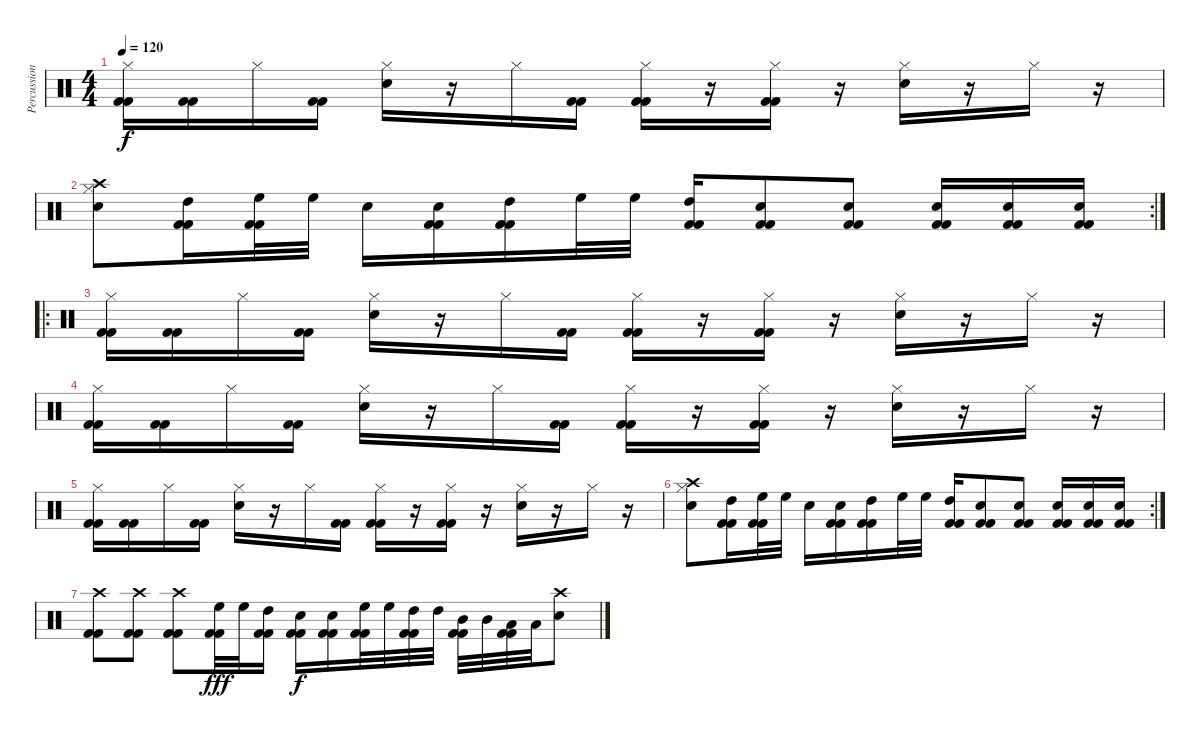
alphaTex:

\track ("Percussion" "Percussion") {instrument percussion}
\staff {score}
\articulation defaults
\ts (4 4)
\tempo 120
\clef neutral
\ks c
("Hi-Hat (closed)" "Kick (hit) 2" "Kick (hit) 2").16{dy f} ("Kick (hit) 2" "Kick (hit) 2").16 "Hi-Hat (closed)".16 ("Kick (hit) 2" "Kick (hit) 2").16 ("Hi-Hat (closed)" "Snare (hit) 2").16 r.16 "Hi-Hat (closed)".16 ("Kick (hit) 2" "Kick (hit) 2").16 ("Hi-Hat (closed)" "Kick (hit) 2" "Kick (hit) 2").16 r.16 ("Hi-Hat (closed)" "Kick (hit) 2" "Kick (hit) 2").16 r.16 ("Hi-Hat (closed)" "Snare (hit) 2").16 r.16 "Hi-Hat (closed)".16 r.16 |
\rc 2
("Hi-Hat (closed)" "Crash high (hit)" "Snare (hit) 2").8 ("High Tom (hit)" "Kick (hit) 2" "Kick (hit) 2").16 ("High Floor Tom (hit)" "Kick (hit) 2" "Kick (hit) 2").32 "High Floor Tom (hit)".32 "Snare (hit) 2".16 ("Snare (hit) 2" "Kick (hit) 2" "Kick (hit) 2").16 ("High Tom (hit)" "Kick (hit) 2" "Kick (hit) 2").16 "High Floor Tom (hit)".32 "High Floor Tom (hit)".32 ("High Tom (hit)" "Kick (hit) 2" "Kick (hit) 2").16 ("Snare (hit) 2" "Kick (hit) 2" "Kick (hit) 2").8 ("Snare (hit) 2" "Kick (hit) 2" "Kick (hit) 2").8 ("Snare (hit) 2" "Kick (hit) 2" "Kick (hit) 2").16 ("Snare (hit) 2" "Kick (hit) 2" "Kick (hit) 2").16 ("Snare (hit) 2" "Kick (hit) 2" "Kick (hit) 2").16 |
\ro
("Hi-Hat (closed)" "Kick (hit) 2" "Kick (hit) 2").16 ("Kick (hit) 2" "Kick (hit) 2").16 "Hi-Hat (closed)".16 ("Kick (hit) 2" "Kick (hit) 2").16 ("Hi-Hat (closed)" "Snare (hit) 2").16 r.16 "Hi-Hat (closed)".16 ("Kick (hit) 2" "Kick (hit) 2").16 ("Hi-Hat (closed)" "Kick (hit) 2" "Kick (hit) 2").16 r.16 ("Hi-Hat (closed)" "Kick (hit) 2" "Kick (hit) 2").16 r.16 ("Hi-Hat (closed)" "Snare (hit) 2").16 r.16 "Hi-Hat (closed)".16 r.16 |
("Hi-Hat (closed)" "Kick (hit) 2" "Kick (hit) 2").16 ("Kick (hit) 2" "Kick (hit) 2").16 "Hi-Hat (closed)".16 ("Kick (hit) 2" "Kick (hit) 2").16 ("Hi-Hat (closed)" "Snare (hit) 2").16 r.16 "Hi-Hat (closed)".16 ("Kick (hit) 2" "Kick (hit) 2").16 ("Hi-Hat (closed)" "Kick (hit) 2" "Kick (hit) 2").16 r.16 ("Hi-Hat (closed)" "Kick (hit) 2" "Kick (hit) 2").16 r.16 ("Hi-Hat (closed)" "Snare (hit) 2").16 r.16 "Hi-Hat (closed)".16 r.16 |
("Hi-Hat (closed)" "Kick (hit) 2" "Kick (hit) 2").16 ("Kick (hit) 2" "Kick (hit) 2").16 "Hi-Hat (closed)".16 ("Kick (hit) 2" "Kick (hit) 2").16 ("Hi-Hat (closed)" "Snare (hit) 2").16 r.16 "Hi-Hat (closed)".16 ("Kick (hit) 2" "Kick (hit) 2").16 ("Hi-Hat (closed)" "Kick (hit) 2" "Kick (hit) 2").16 r.16 ("Hi-Hat (closed)" "Kick (hit) 2" "Kick (hit) 2").16 r.16 ("Hi-Hat (closed)" "Snare (hit) 2").16 r.16 "Hi-Hat (closed)".16 r.16 |
\rc 2
("Hi-Hat (closed)" "Crash high (hit)" "Snare (hit) 2").8 ("High Tom (hit)" "Kick (hit) 2" "Kick (hit) 2").16 ("High Floor Tom (hit)" "Kick (hit) 2" "Kick (hit) 2").32 "High Floor Tom (hit)".32 "Snare (hit) 2".16 ("Snare (hit) 2" "Kick (hit) 2" "Kick (hit) 2").16 ("High Tom (hit)" "Kick (hit) 2" "Kick (hit) 2").16 "High Floor Tom (hit)".32 "High Floor Tom (hit)".32 ("High Tom (hit)" "Kick (hit) 2" "Kick (hit) 2").16 ("Snare (hit) 2" "Kick (hit) 2" "Kick (hit) 2").8 ("Snare (hit) 2" "Kick (hit) 2" "Kick (hit) 2").8 ("Snare (hit) 2" "Kick (hit) 2" "Kick (hit) 2").16 ("Snare (hit) 2" "Kick (hit) 2" "Kick (hit) 2").16 ("Snare (hit) 2" "Kick (hit) 2" "Kick (hit) 2").16 |
("Crash high (hit)" "Kick (hit) 2" "Kick (hit) 2").8 ("Crash high (hit)" "Kick (hit) 2" "Kick (hit) 2").8 ("Crash high (hit)" "Kick (hit) 2" "Kick (hit) 2").8 ("High Floor Tom (hit)" "Kick (hit) 2" "Kick (hit) 2").32{dy fff} "High Floor Tom (hit)".32 ("High Tom (hit)" "Kick (hit) 2" "Kick (hit) 2").16 ("Snare (hit) 2" "Kick (hit) 2" "Kick (hit) 2").16{dy f} ("Snare (hit) 2" "Kick (hit) 2" "Kick (hit) 2").16 ("High Floor Tom (hit)" "Kick (hit) 2" "Kick (hit) 2").32 "High Floor Tom (hit)".32 ("High Tom (hit)" "Kick (hit) 2" "Kick (hit) 2").32 "High Tom (hit)".32 ("Mid Tom (hit)" "Kick (hit) 2" "Kick (hit) 2").32 "Mid Tom (hit)".32 ("Low Tom (hit)" "Kick (hit) 2" "Kick (hit) 2").32 "Low Tom (hit)".32 ("Crash high (hit)" "Snare (hit) 2").8
